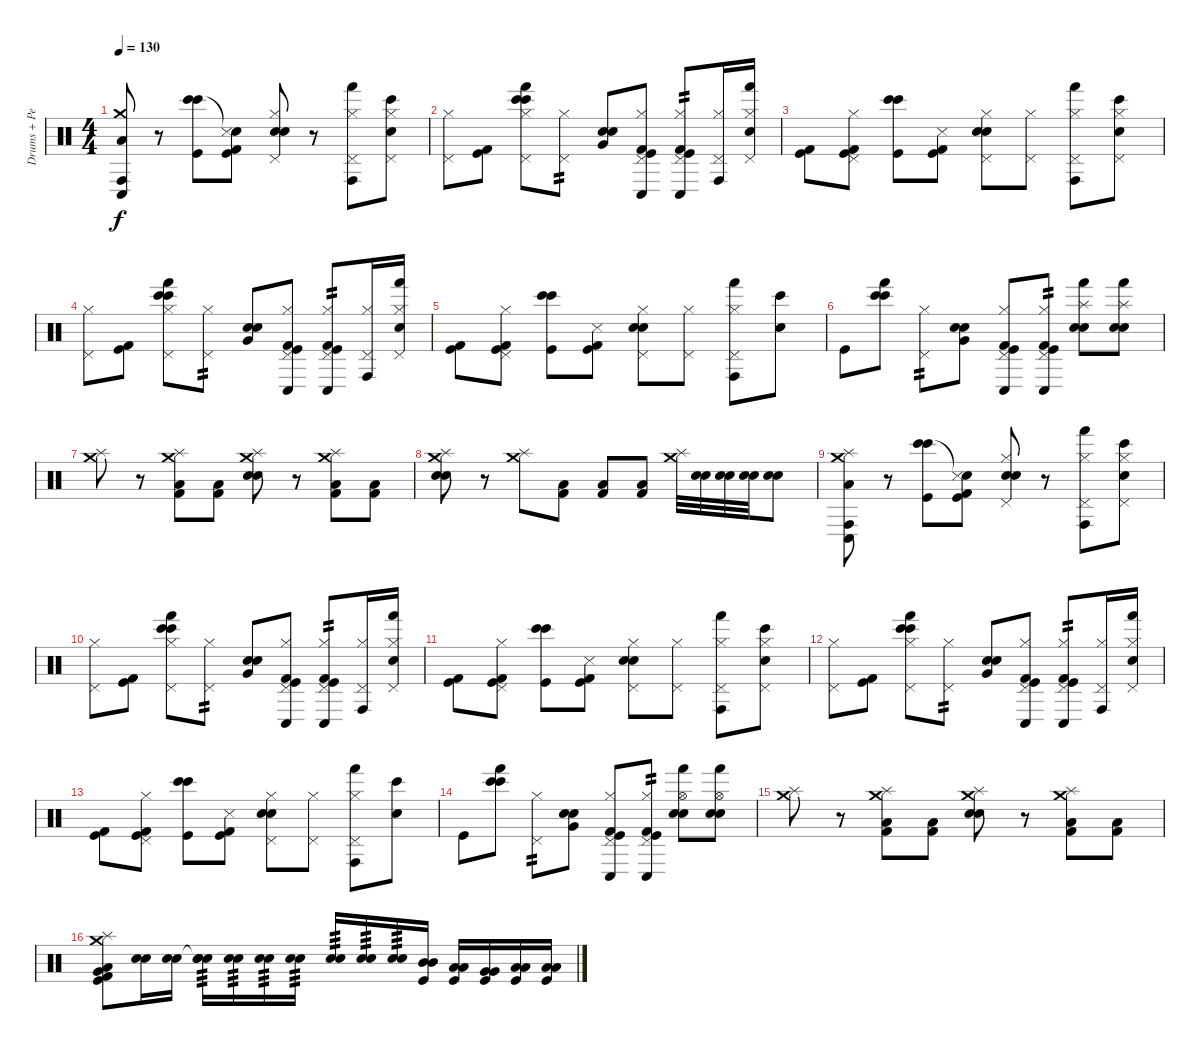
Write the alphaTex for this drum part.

\track ("Drums + Percussions (Dave Chavarri)" "Drums + Pe") {instrument percussion}
\staff {score}
\articulation defaults
\ts (4 4)
\tempo 130
\clef neutral
\ks c
("Crash medium (hit)" "Conga low (hit)" "Low Floor Tom (hit)" "Conga high (hit)").8{dy f} r.8 ("Bongo High (hit)" "Bongo High (hit)" "Kick (hit)").8 ("Snare (hit)"{t} "Snare (side stick) 3" "Kick (hit) 2" "Kick (hit)").8 ("Pedal Hi-Hat (hit)" "Hi-Hat (closed)" "Electric Snare (hit)" "Electric Snare (hit)").8 r.8 ("Pedal Hi-Hat (hit)" "Hi-Hat (closed)" "Hand (hit)" "Conga high (hit)").8 ("Pedal Hi-Hat (hit)" "Hi-Hat (closed)" "Electric Snare (hit)" "Bongo High (hit)").8 |
("Pedal Hi-Hat (hit)" "Hi-Hat (closed)").8 ("Kick (hit) 2" "Kick (hit)").8 ("Hi-Hat (closed)" "Pedal Hi-Hat (hit)" "Bongo High (hit)" "Bongo High (hit)" "Hand (hit)").8 ("Pedal Hi-Hat (hit)" "Hi-Hat (closed)").8{tp 2} ("Electric Snare (hit)" "Electric Snare (hit)" "Very Low Tom (hit)").8 ("Pedal Hi-Hat (hit)" "Hi-Hat (closed)" "Conga low (hit)" "Kick (hit) 2" "Kick (hit)").8 ("Pedal Hi-Hat (hit)" "Hi-Hat (closed)" "Conga low (hit)" "Kick (hit)" "Kick (hit) 2").8{tp 2} ("Pedal Hi-Hat (hit)" "Hi-Hat (closed)" "Conga high (hit)").16 ("Pedal Hi-Hat (hit)" "Hi-Hat (closed)" "Hand (hit)" "Electric Snare (hit)").16 |
("Kick (hit) 2" "Kick (hit)").8 ("Pedal Hi-Hat (hit)" "Hi-Hat (closed)" "Kick (hit) 2" "Kick (hit)").8 ("Bongo High (hit)" "Bongo High (hit)" "Kick (hit)").8 ("Snare (side stick) 3" "Kick (hit) 2" "Kick (hit)").8 ("Pedal Hi-Hat (hit)" "Hi-Hat (closed)" "Electric Snare (hit)" "Electric Snare (hit)").8 ("Pedal Hi-Hat (hit)" "Hi-Hat (closed)").8 ("Pedal Hi-Hat (hit)" "Hi-Hat (closed)" "Hand (hit)" "Conga high (hit)").8 ("Pedal Hi-Hat (hit)" "Hi-Hat (closed)" "Electric Snare (hit)" "Bongo High (hit)").8 |
("Pedal Hi-Hat (hit)" "Hi-Hat (closed)").8 ("Kick (hit) 2" "Kick (hit)").8 ("Pedal Hi-Hat (hit)" "Hi-Hat (closed)" "Bongo High (hit)" "Bongo High (hit)" "Hand (hit)").8 ("Pedal Hi-Hat (hit)" "Hi-Hat (closed)").8{tp 2} ("Electric Snare (hit)" "Electric Snare (hit)" "Very Low Tom (hit)").8 ("Pedal Hi-Hat (hit)" "Hi-Hat (closed)" "Conga low (hit)" "Kick (hit) 2" "Kick (hit)").8 ("Pedal Hi-Hat (hit)" "Hi-Hat (closed)" "Conga low (hit)" "Kick (hit)" "Kick (hit) 2").8{tp 2} ("Pedal Hi-Hat (hit)" "Hi-Hat (closed)" "Conga high (hit)").16 ("Pedal Hi-Hat (hit)" "Hi-Hat (closed)" "Hand (hit)" "Electric Snare (hit)").16 |
("Kick (hit) 2" "Kick (hit)").8 ("Pedal Hi-Hat (hit)" "Hi-Hat (closed)" "Kick (hit) 2" "Kick (hit)").8 ("Bongo High (hit)" "Bongo High (hit)" "Kick (hit)").8 ("Snare (side stick) 3" "Kick (hit) 2" "Kick (hit)").8 ("Pedal Hi-Hat (hit)" "Hi-Hat (closed)" "Electric Snare (hit)" "Electric Snare (hit)").8 ("Pedal Hi-Hat (hit)" "Hi-Hat (closed)").8 ("Pedal Hi-Hat (hit)" "Hi-Hat (closed)" "Hand (hit)" "Conga high (hit)").8 ("Electric Snare (hit)" "Bongo High (hit)").8 |
"Kick (hit)".8 ("Bongo High (hit)" "Bongo High (hit)" "Hand (hit)").8 ("Pedal Hi-Hat (hit)" "Hi-Hat (closed)").8{tp 2} ("Electric Snare (hit)" "Electric Snare (hit)" "Very Low Tom (hit)").8 ("Pedal Hi-Hat (hit)" "Hi-Hat (closed)" "Conga low (hit)" "Kick (hit) 2" "Kick (hit)").8 ("Pedal Hi-Hat (hit)" "Hi-Hat (closed)" "Conga low (hit)" "Kick (hit)" "Kick (hit) 2").8{tp 2} ("Splash (hit)" "Snare (hit) 2" "Electric Snare (hit)" "Hand (hit)").8 ("Splash (hit)" "Snare (hit) 2" "Electric Snare (hit)" "Hand (hit)").8 |
("Crash medium (hit)" "Splash (hit)").8 r.8 ("Crash medium (hit)" "Splash (hit)" "Low Floor Tom (hit)" "Kick (hit) 2").8 ("Low Floor Tom (hit)" "Kick (hit) 2").8 ("Crash medium (hit)" "Splash (hit)" "Snare (hit) 2" "Electric Snare (hit)").8 r.8 ("Crash medium (hit)" "Splash (hit)" "Low Floor Tom (hit)" "Kick (hit) 2").8 ("Low Floor Tom (hit)" "Kick (hit) 2").8 |
("Crash medium (hit)" "Splash (hit)" "Snare (hit) 2" "Electric Snare (hit)").8 r.8 ("Crash medium (hit)" "Splash (hit)").8 ("Low Floor Tom (hit)" "Kick (hit) 2").8 ("Low Floor Tom (hit)" "Kick (hit) 2").8 ("Low Floor Tom (hit)" "Kick (hit) 2").8 ("Crash medium (hit)" "Splash (hit)").32 ("Electric Snare (hit)" "Electric Snare (hit)").32 ("Electric Snare (hit)" "Electric Snare (hit)").32 ("Electric Snare (hit)" "Electric Snare (hit)").32 ("Snare (hit) 2" "Electric Snare (hit)").8 |
("Crash medium (hit)" "Splash (hit)" "Conga low (hit)" "Low Floor Tom (hit)" "Conga high (hit)").8 r.8 ("Bongo High (hit)" "Bongo High (hit)" "Kick (hit)").8 ("Snare (hit)"{t} "Snare (side stick) 3" "Kick (hit) 2" "Kick (hit)").8 ("Pedal Hi-Hat (hit)" "Hi-Hat (closed)" "Electric Snare (hit)" "Electric Snare (hit)").8 r.8 ("Pedal Hi-Hat (hit)" "Hi-Hat (closed)" "Hand (hit)" "Conga high (hit)").8 ("Pedal Hi-Hat (hit)" "Hi-Hat (closed)" "Electric Snare (hit)" "Bongo High (hit)").8 |
("Pedal Hi-Hat (hit)" "Hi-Hat (closed)").8 ("Kick (hit) 2" "Kick (hit)").8 ("Hi-Hat (closed)" "Pedal Hi-Hat (hit)" "Bongo High (hit)" "Bongo High (hit)" "Hand (hit)").8 ("Pedal Hi-Hat (hit)" "Hi-Hat (closed)").8{tp 2} ("Electric Snare (hit)" "Electric Snare (hit)" "Very Low Tom (hit)").8 ("Pedal Hi-Hat (hit)" "Hi-Hat (closed)" "Conga low (hit)" "Kick (hit) 2" "Kick (hit)").8 ("Pedal Hi-Hat (hit)" "Hi-Hat (closed)" "Conga low (hit)" "Kick (hit)" "Kick (hit) 2").8{tp 2} ("Pedal Hi-Hat (hit)" "Hi-Hat (closed)" "Conga high (hit)").16 ("Pedal Hi-Hat (hit)" "Hi-Hat (closed)" "Hand (hit)" "Electric Snare (hit)").16 |
("Kick (hit) 2" "Kick (hit)").8 ("Pedal Hi-Hat (hit)" "Hi-Hat (closed)" "Kick (hit) 2" "Kick (hit)").8 ("Bongo High (hit)" "Bongo High (hit)" "Kick (hit)").8 ("Snare (side stick) 3" "Kick (hit) 2" "Kick (hit)").8 ("Pedal Hi-Hat (hit)" "Hi-Hat (closed)" "Electric Snare (hit)" "Electric Snare (hit)").8 ("Pedal Hi-Hat (hit)" "Hi-Hat (closed)").8 ("Pedal Hi-Hat (hit)" "Hi-Hat (closed)" "Hand (hit)" "Conga high (hit)").8 ("Pedal Hi-Hat (hit)" "Hi-Hat (closed)" "Electric Snare (hit)" "Bongo High (hit)").8 |
("Pedal Hi-Hat (hit)" "Hi-Hat (closed)").8 ("Kick (hit) 2" "Kick (hit)").8 ("Pedal Hi-Hat (hit)" "Hi-Hat (closed)" "Bongo High (hit)" "Bongo High (hit)" "Hand (hit)").8 ("Pedal Hi-Hat (hit)" "Hi-Hat (closed)").8{tp 2} ("Electric Snare (hit)" "Electric Snare (hit)" "Very Low Tom (hit)").8 ("Pedal Hi-Hat (hit)" "Hi-Hat (closed)" "Conga low (hit)" "Kick (hit) 2" "Kick (hit)").8 ("Pedal Hi-Hat (hit)" "Hi-Hat (closed)" "Conga low (hit)" "Kick (hit)" "Kick (hit) 2").8{tp 2} ("Pedal Hi-Hat (hit)" "Hi-Hat (closed)" "Conga high (hit)").16 ("Pedal Hi-Hat (hit)" "Hi-Hat (closed)" "Hand (hit)" "Electric Snare (hit)").16 |
("Kick (hit) 2" "Kick (hit)").8 ("Pedal Hi-Hat (hit)" "Hi-Hat (closed)" "Kick (hit) 2" "Kick (hit)").8 ("Bongo High (hit)" "Bongo High (hit)" "Kick (hit)").8 ("Snare (side stick) 3" "Kick (hit) 2" "Kick (hit)").8 ("Pedal Hi-Hat (hit)" "Hi-Hat (closed)" "Electric Snare (hit)" "Electric Snare (hit)").8 ("Pedal Hi-Hat (hit)" "Hi-Hat (closed)").8 ("Pedal Hi-Hat (hit)" "Hi-Hat (closed)" "Hand (hit)" "Conga high (hit)").8 ("Electric Snare (hit)" "Bongo High (hit)").8 |
"Kick (hit)".8 ("Bongo High (hit)" "Bongo High (hit)" "Hand (hit)").8 ("Pedal Hi-Hat (hit)" "Hi-Hat (closed)").8{tp 2} ("Electric Snare (hit)" "Electric Snare (hit)" "Very Low Tom (hit)").8 ("Pedal Hi-Hat (hit)" "Hi-Hat (closed)" "Conga low (hit)" "Kick (hit) 2" "Kick (hit)").8 ("Pedal Hi-Hat (hit)" "Hi-Hat (closed)" "Conga low (hit)" "Kick (hit)" "Kick (hit) 2").8{tp 2} ("Hi-Hat (open)" "Snare (hit) 2" "Electric Snare (hit)" "Hand (hit)").8 ("Hi-Hat (open)" "Snare (hit) 2" "Electric Snare (hit)" "Hand (hit)").8 |
("Crash medium (hit)" "Splash (hit)").8 r.8 ("Crash medium (hit)" "Splash (hit)" "Low Floor Tom (hit)" "Kick (hit) 2").8 ("Low Floor Tom (hit)" "Kick (hit) 2").8 ("Crash medium (hit)" "Splash (hit)" "Snare (hit) 2" "Electric Snare (hit)").8 r.8 ("Crash medium (hit)" "Splash (hit)" "Low Floor Tom (hit)" "Kick (hit) 2").8 ("Low Floor Tom (hit)" "Kick (hit) 2").8 |
("Crash medium (hit)" "Splash (hit)" "Very Low Tom (hit)" "Low Floor Tom (hit)" "Kick (hit) 2" "Kick (hit)").8 ("Electric Snare (hit)" "Electric Snare (hit)").16{volume 16} ("Electric Snare (hit)" "Electric Snare (hit)").16{volume 14} ("Snare (hit)"{t} "Electric Snare (hit)" "Electric Snare (hit)").16{tp 3} ("Electric Snare (hit)" "Electric Snare (hit)").16{tp 3 volume 12} ("Electric Snare (hit)" "Electric Snare (hit)").16{tp 3} ("Electric Snare (hit)" "Electric Snare (hit)").16{tp 3 volume 13} ("Electric Snare (hit)" "Electric Snare (hit)").16{tp 3} ("Electric Snare (hit)" "Electric Snare (hit)").16{tp 3} ("Electric Snare (hit)" "Electric Snare (hit)").16{tp 3} ("Mid Tom (hit)" "Mid Tom (hit)" "Kick (hit)").16{volume 16} ("Low Tom (hit)" "Low Tom (hit)" "Kick (hit)").16 ("Very Low Tom (hit)" "Very Low Tom (hit)" "Kick (hit)").16 ("Low Floor Tom (hit)" "Low Floor Tom (hit)" "Kick (hit)").16 ("Low Floor Tom (hit)" "Low Floor Tom (hit)" "Kick (hit)").16
